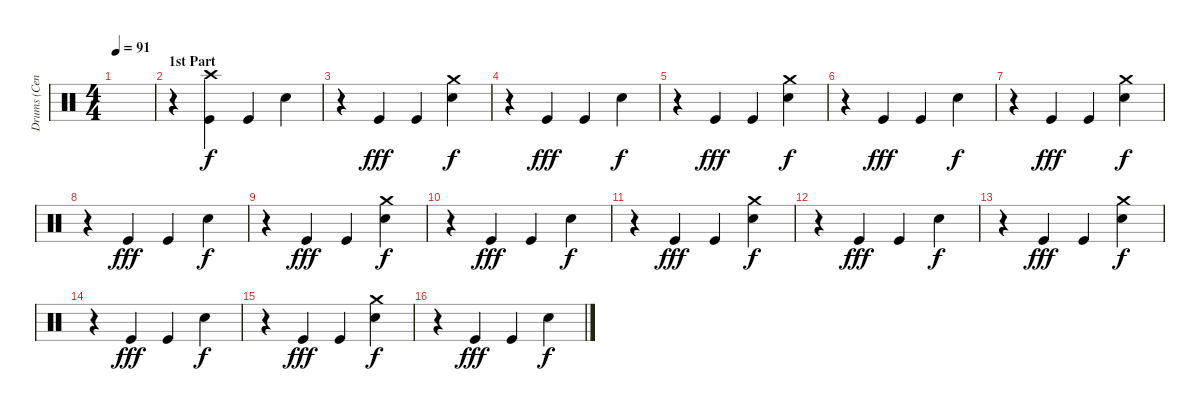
\track ("Drums (Cenk)" "Drums (Cen") {instrument percussion}
\staff {score}
\articulation defaults
\ts (4 4)
\tempo 91
\clef neutral
\ks c
|
\section ("" "1st Part")
r.4 ("Crash high (hit)" "Kick (hit)").4 "Kick (hit)".4 "Snare (hit) 2".4{dy f} |
r.4 "Kick (hit)".4{dy fff} "Kick (hit)".4 ("Crash medium (hit)" "Snare (hit) 2").4{dy f} |
r.4 "Kick (hit)".4{dy fff} "Kick (hit)".4 "Snare (hit) 2".4{dy f} |
r.4 "Kick (hit)".4{dy fff} "Kick (hit)".4 ("Crash medium (hit)" "Snare (hit) 2").4{dy f} |
r.4 "Kick (hit)".4{dy fff} "Kick (hit)".4 "Snare (hit) 2".4{dy f} |
r.4 "Kick (hit)".4{dy fff} "Kick (hit)".4 ("Crash medium (hit)" "Snare (hit) 2").4{dy f} |
r.4 "Kick (hit)".4{dy fff} "Kick (hit)".4 "Snare (hit) 2".4{dy f} |
r.4 "Kick (hit)".4{dy fff} "Kick (hit)".4 ("Crash medium (hit)" "Snare (hit) 2").4{dy f} |
r.4 "Kick (hit)".4{dy fff} "Kick (hit)".4 "Snare (hit) 2".4{dy f} |
r.4 "Kick (hit)".4{dy fff} "Kick (hit)".4 ("Crash medium (hit)" "Snare (hit) 2").4{dy f} |
r.4 "Kick (hit)".4{dy fff} "Kick (hit)".4 "Snare (hit) 2".4{dy f} |
r.4 "Kick (hit)".4{dy fff} "Kick (hit)".4 ("Crash medium (hit)" "Snare (hit) 2").4{dy f} |
r.4 "Kick (hit)".4{dy fff} "Kick (hit)".4 "Snare (hit) 2".4{dy f} |
r.4 "Kick (hit)".4{dy fff} "Kick (hit)".4 ("Crash medium (hit)" "Snare (hit) 2").4{dy f} |
r.4 "Kick (hit)".4{dy fff} "Kick (hit)".4 "Snare (hit) 2".4{dy f}
